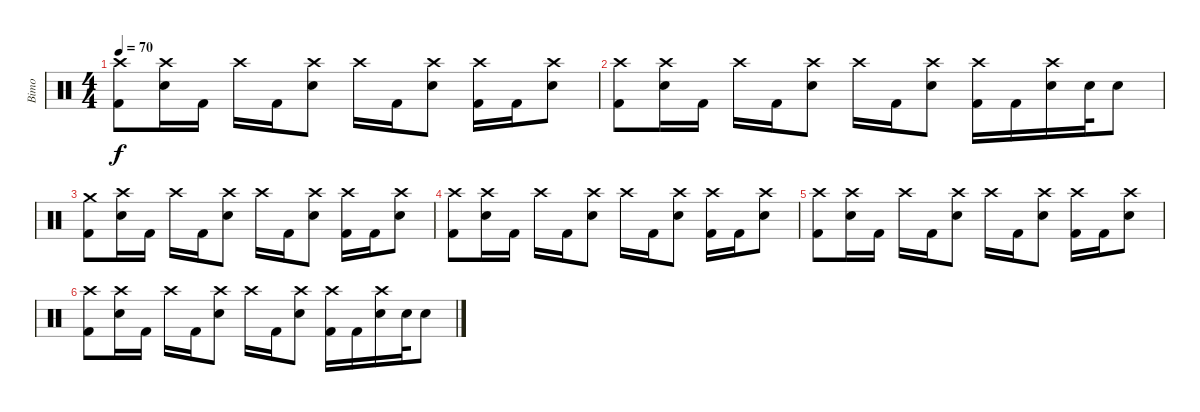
\track ("Bimo" "Bimo") {instrument percussion}
\staff {score}
\articulation defaults
\ts (4 4)
\tempo 70
\clef neutral
\ks c
("Crash high (hit)" "Kick (hit) 2").8{dy f} ("Crash high (hit)" "Snare (hit) 2").16 "Kick (hit) 2".16 "Crash high (hit)".16 "Kick (hit) 2".16 ("Crash high (hit)" "Snare (hit) 2").8 "Crash high (hit)".16 "Kick (hit) 2".16 ("Crash high (hit)" "Snare (hit) 2").8 ("Crash high (hit)" "Kick (hit) 2").16 "Kick (hit) 2".16 ("Crash high (hit)" "Snare (hit) 2").8 |
("Crash high (hit)" "Kick (hit) 2").8 ("Crash high (hit)" "Snare (hit) 2").16 "Kick (hit) 2".16 "Crash high (hit)".16 "Kick (hit) 2".16 ("Crash high (hit)" "Snare (hit) 2").8 "Crash high (hit)".16 "Kick (hit) 2".16 ("Crash high (hit)" "Snare (hit) 2").8 ("Crash high (hit)" "Kick (hit) 2").16 "Kick (hit) 2".16 ("Crash high (hit)" "Snare (hit) 2").16 "Snare (hit) 2".32 "Snare (hit) 2".8 |
("Crash medium (hit)" "Kick (hit) 2").8 ("Crash high (hit)" "Snare (hit) 2").16 "Kick (hit) 2".16 "Crash high (hit)".16 "Kick (hit) 2".16 ("Crash high (hit)" "Snare (hit) 2").8 "Crash high (hit)".16 "Kick (hit) 2".16 ("Crash high (hit)" "Snare (hit) 2").8 ("Crash high (hit)" "Kick (hit) 2").16 "Kick (hit) 2".16 ("Crash high (hit)" "Snare (hit) 2").8 |
("Crash high (hit)" "Kick (hit) 2").8 ("Crash high (hit)" "Snare (hit) 2").16 "Kick (hit) 2".16 "Crash high (hit)".16 "Kick (hit) 2".16 ("Crash high (hit)" "Snare (hit) 2").8 "Crash high (hit)".16 "Kick (hit) 2".16 ("Crash high (hit)" "Snare (hit) 2").8 ("Crash high (hit)" "Kick (hit) 2").16 "Kick (hit) 2".16 ("Crash high (hit)" "Snare (hit) 2").8 |
("Crash high (hit)" "Kick (hit) 2").8 ("Crash high (hit)" "Snare (hit) 2").16 "Kick (hit) 2".16 "Crash high (hit)".16 "Kick (hit) 2".16 ("Crash high (hit)" "Snare (hit) 2").8 "Crash high (hit)".16 "Kick (hit) 2".16 ("Crash high (hit)" "Snare (hit) 2").8 ("Crash high (hit)" "Kick (hit) 2").16 "Kick (hit) 2".16 ("Crash high (hit)" "Snare (hit) 2").8 |
("Crash high (hit)" "Kick (hit) 2").8 ("Crash high (hit)" "Snare (hit) 2").16 "Kick (hit) 2".16 "Crash high (hit)".16 "Kick (hit) 2".16 ("Crash high (hit)" "Snare (hit) 2").8 "Crash high (hit)".16 "Kick (hit) 2".16 ("Crash high (hit)" "Snare (hit) 2").8 ("Crash high (hit)" "Kick (hit) 2").16 "Kick (hit) 2".16 ("Crash high (hit)" "Snare (hit) 2").16 "Snare (hit) 2".32 "Snare (hit) 2".8
